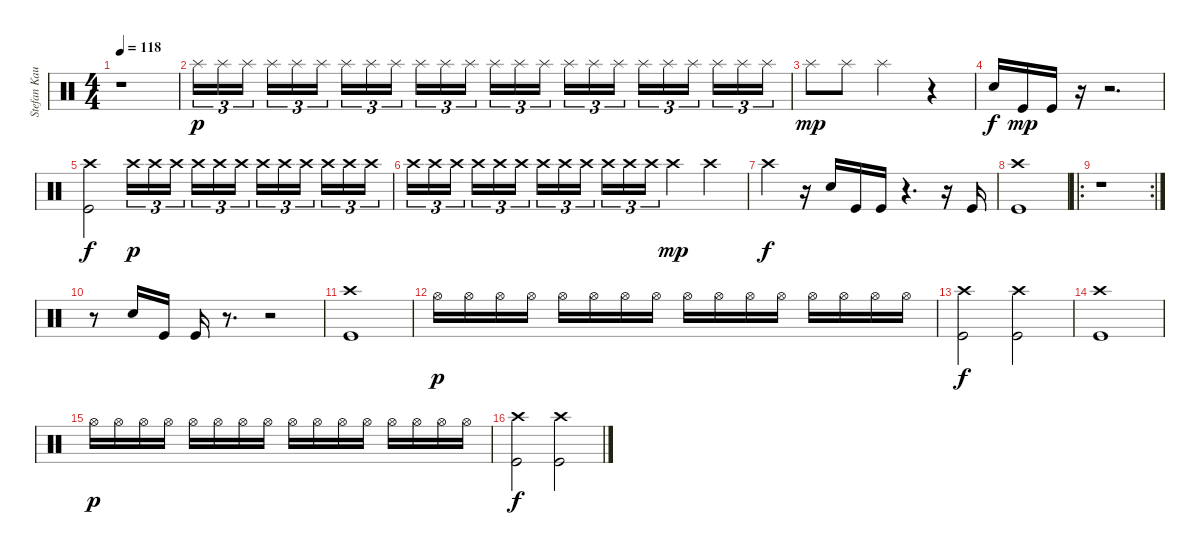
\track ("Stefan Kaufmann" "Stefan Kau") {instrument percussion}
\staff {score}
\articulation defaults
\ts (4 4)
\tempo 118
\clef neutral
\ks c
r.1{dy p} |
"Splash (hit)".16{tu (3 2)} "Splash (hit)".16{tu (3 2)} "Splash (hit)".16{tu (3 2)} "Splash (hit)".16{tu (3 2)} "Splash (hit)".16{tu (3 2)} "Splash (hit)".16{tu (3 2)} "Splash (hit)".16{tu (3 2)} "Splash (hit)".16{tu (3 2)} "Splash (hit)".16{tu (3 2)} "Splash (hit)".16{tu (3 2)} "Splash (hit)".16{tu (3 2)} "Splash (hit)".16{tu (3 2)} "Splash (hit)".16{tu (3 2)} "Splash (hit)".16{tu (3 2)} "Splash (hit)".16{tu (3 2)} "Splash (hit)".16{tu (3 2)} "Splash (hit)".16{tu (3 2)} "Splash (hit)".16{tu (3 2)} "Splash (hit)".16{tu (3 2)} "Splash (hit)".16{tu (3 2)} "Splash (hit)".16{tu (3 2)} "Splash (hit)".16{tu (3 2)} "Splash (hit)".16{tu (3 2)} "Splash (hit)".16{tu (3 2)} |
"Splash (hit)".8{dy mp} "Splash (hit)".8 "Splash (hit)".2 r.4 |
"Snare (hit) 2".16{dy f} "Kick (hit)".16{dy mp} "Kick (hit)".16 r.16 r.2{d} |
("Crash high (hit)" "Kick (hit)").2{dy f} "Crash high (hit)".16{tu (3 2) dy p} "Crash high (hit)".16{tu (3 2)} "Crash high (hit)".16{tu (3 2)} "Crash high (hit)".16{tu (3 2)} "Crash high (hit)".16{tu (3 2)} "Crash high (hit)".16{tu (3 2)} "Crash high (hit)".16{tu (3 2)} "Crash high (hit)".16{tu (3 2)} "Crash high (hit)".16{tu (3 2)} "Crash high (hit)".16{tu (3 2)} "Crash high (hit)".16{tu (3 2)} "Crash high (hit)".16{tu (3 2)} |
"Crash high (hit)".16{tu (3 2)} "Crash high (hit)".16{tu (3 2)} "Crash high (hit)".16{tu (3 2)} "Crash high (hit)".16{tu (3 2)} "Crash high (hit)".16{tu (3 2)} "Crash high (hit)".16{tu (3 2)} "Crash high (hit)".16{tu (3 2)} "Crash high (hit)".16{tu (3 2)} "Crash high (hit)".16{tu (3 2)} "Crash high (hit)".16{tu (3 2)} "Crash high (hit)".16{tu (3 2)} "Crash high (hit)".16{tu (3 2)} "Crash high (hit)".4{dy mp} "Crash high (hit)".4 |
"Crash high (hit)".4{dy f} r.16 "Snare (hit) 2".16 "Kick (hit)".16 "Kick (hit)".16 r.4{d} r.16 "Kick (hit)".16 |
("Crash high (hit)" "Kick (hit)").1 |
\ro
\rc 2
r.1 |
r.8 "Snare (hit) 2".16 "Kick (hit)".16 "Kick (hit)".16 r.8{d} r.2 |
("Crash high (hit)" "Kick (hit)").1 |
"Hi-Hat (open)".16{dy p} "Hi-Hat (open)".16 "Hi-Hat (open)".16 "Hi-Hat (open)".16 "Hi-Hat (open)".16 "Hi-Hat (open)".16 "Hi-Hat (open)".16 "Hi-Hat (open)".16 "Hi-Hat (open)".16 "Hi-Hat (open)".16 "Hi-Hat (open)".16 "Hi-Hat (open)".16 "Hi-Hat (open)".16 "Hi-Hat (open)".16 "Hi-Hat (open)".16 "Hi-Hat (open)".16 |
("Crash high (hit)" "Kick (hit)").2{dy f} ("Crash high (hit)" "Kick (hit)").2 |
("Crash high (hit)" "Kick (hit)").1 |
"Hi-Hat (open)".16{dy p} "Hi-Hat (open)".16 "Hi-Hat (open)".16 "Hi-Hat (open)".16 "Hi-Hat (open)".16 "Hi-Hat (open)".16 "Hi-Hat (open)".16 "Hi-Hat (open)".16 "Hi-Hat (open)".16 "Hi-Hat (open)".16 "Hi-Hat (open)".16 "Hi-Hat (open)".16 "Hi-Hat (open)".16 "Hi-Hat (open)".16 "Hi-Hat (open)".16 "Hi-Hat (open)".16 |
("Crash high (hit)" "Kick (hit)").2{dy f} ("Crash high (hit)" "Kick (hit)").2
